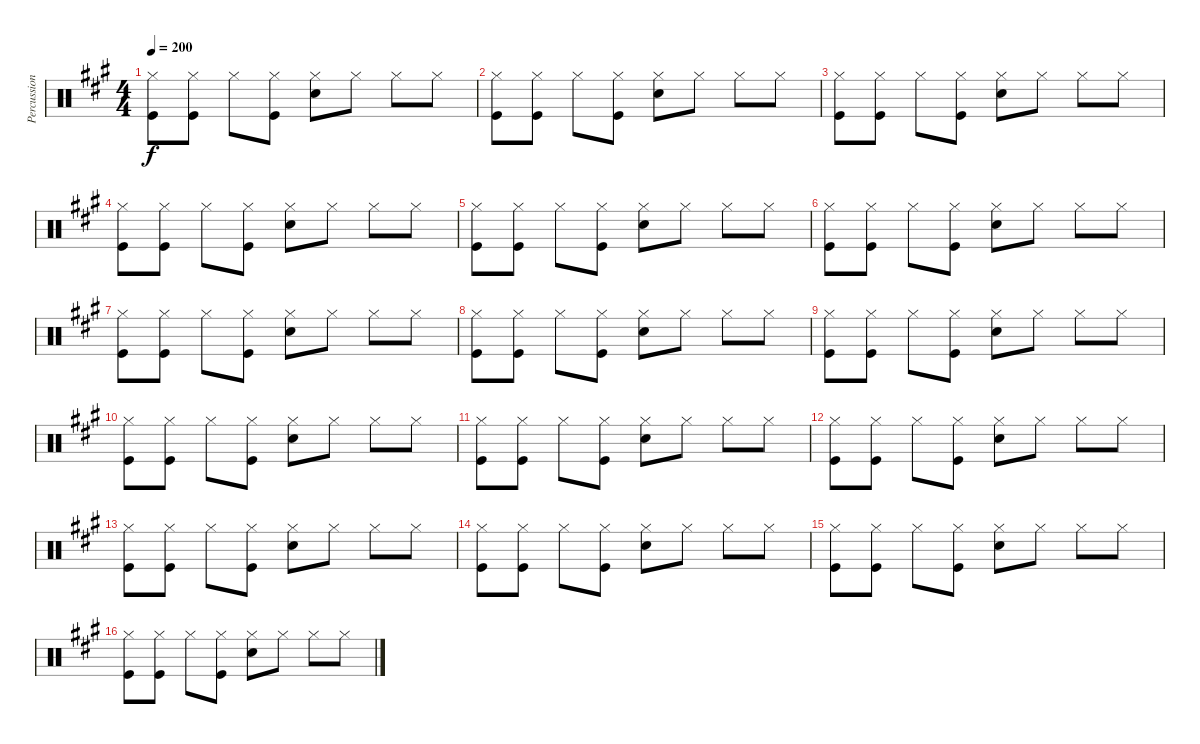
\track ("Percussion" "Percussion") {instrument percussion}
\staff {score}
\articulation defaults
\ts (4 4)
\tempo 200
\clef neutral
\ks a
("Hi-Hat (closed)" "Kick (hit)").8{dy f} ("Hi-Hat (closed)" "Kick (hit)").8 "Hi-Hat (closed)".8 ("Hi-Hat (closed)" "Kick (hit)").8 ("Hi-Hat (closed)" "Snare (hit) 2").8 "Hi-Hat (closed)".8 "Hi-Hat (closed)".8 "Hi-Hat (closed)".8 |
("Hi-Hat (closed)" "Kick (hit)").8 ("Hi-Hat (closed)" "Kick (hit)").8 "Hi-Hat (closed)".8 ("Hi-Hat (closed)" "Kick (hit)").8 ("Hi-Hat (closed)" "Snare (hit) 2").8 "Hi-Hat (closed)".8 "Hi-Hat (closed)".8 "Hi-Hat (closed)".8 |
("Hi-Hat (closed)" "Kick (hit)").8 ("Hi-Hat (closed)" "Kick (hit)").8 "Hi-Hat (closed)".8 ("Hi-Hat (closed)" "Kick (hit)").8 ("Hi-Hat (closed)" "Snare (hit) 2").8 "Hi-Hat (closed)".8 "Hi-Hat (closed)".8 "Hi-Hat (closed)".8 |
("Hi-Hat (closed)" "Kick (hit)").8 ("Hi-Hat (closed)" "Kick (hit)").8 "Hi-Hat (closed)".8 ("Hi-Hat (closed)" "Kick (hit)").8 ("Hi-Hat (closed)" "Snare (hit) 2").8 "Hi-Hat (closed)".8 "Hi-Hat (closed)".8 "Hi-Hat (closed)".8 |
("Hi-Hat (closed)" "Kick (hit)").8 ("Hi-Hat (closed)" "Kick (hit)").8 "Hi-Hat (closed)".8 ("Hi-Hat (closed)" "Kick (hit)").8 ("Hi-Hat (closed)" "Snare (hit) 2").8 "Hi-Hat (closed)".8 "Hi-Hat (closed)".8 "Hi-Hat (closed)".8 |
("Hi-Hat (closed)" "Kick (hit)").8 ("Hi-Hat (closed)" "Kick (hit)").8 "Hi-Hat (closed)".8 ("Hi-Hat (closed)" "Kick (hit)").8 ("Hi-Hat (closed)" "Snare (hit) 2").8 "Hi-Hat (closed)".8 "Hi-Hat (closed)".8 "Hi-Hat (closed)".8 |
("Hi-Hat (closed)" "Kick (hit)").8 ("Hi-Hat (closed)" "Kick (hit)").8 "Hi-Hat (closed)".8 ("Hi-Hat (closed)" "Kick (hit)").8 ("Hi-Hat (closed)" "Snare (hit) 2").8 "Hi-Hat (closed)".8 "Hi-Hat (closed)".8 "Hi-Hat (closed)".8 |
("Hi-Hat (closed)" "Kick (hit)").8 ("Hi-Hat (closed)" "Kick (hit)").8 "Hi-Hat (closed)".8 ("Hi-Hat (closed)" "Kick (hit)").8 ("Hi-Hat (closed)" "Snare (hit) 2").8 "Hi-Hat (closed)".8 "Hi-Hat (closed)".8 "Hi-Hat (closed)".8 |
("Hi-Hat (closed)" "Kick (hit)").8 ("Hi-Hat (closed)" "Kick (hit)").8 "Hi-Hat (closed)".8 ("Hi-Hat (closed)" "Kick (hit)").8 ("Hi-Hat (closed)" "Snare (hit) 2").8 "Hi-Hat (closed)".8 "Hi-Hat (closed)".8 "Hi-Hat (closed)".8 |
("Hi-Hat (closed)" "Kick (hit)").8 ("Hi-Hat (closed)" "Kick (hit)").8 "Hi-Hat (closed)".8 ("Hi-Hat (closed)" "Kick (hit)").8 ("Hi-Hat (closed)" "Snare (hit) 2").8 "Hi-Hat (closed)".8 "Hi-Hat (closed)".8 "Hi-Hat (closed)".8 |
("Hi-Hat (closed)" "Kick (hit)").8 ("Hi-Hat (closed)" "Kick (hit)").8 "Hi-Hat (closed)".8 ("Hi-Hat (closed)" "Kick (hit)").8 ("Hi-Hat (closed)" "Snare (hit) 2").8 "Hi-Hat (closed)".8 "Hi-Hat (closed)".8 "Hi-Hat (closed)".8 |
("Hi-Hat (closed)" "Kick (hit)").8 ("Hi-Hat (closed)" "Kick (hit)").8 "Hi-Hat (closed)".8 ("Hi-Hat (closed)" "Kick (hit)").8 ("Hi-Hat (closed)" "Snare (hit) 2").8 "Hi-Hat (closed)".8 "Hi-Hat (closed)".8 "Hi-Hat (closed)".8 |
("Hi-Hat (closed)" "Kick (hit)").8 ("Hi-Hat (closed)" "Kick (hit)").8 "Hi-Hat (closed)".8 ("Hi-Hat (closed)" "Kick (hit)").8 ("Hi-Hat (closed)" "Snare (hit) 2").8 "Hi-Hat (closed)".8 "Hi-Hat (closed)".8 "Hi-Hat (closed)".8 |
("Hi-Hat (closed)" "Kick (hit)").8 ("Hi-Hat (closed)" "Kick (hit)").8 "Hi-Hat (closed)".8 ("Hi-Hat (closed)" "Kick (hit)").8 ("Hi-Hat (closed)" "Snare (hit) 2").8 "Hi-Hat (closed)".8 "Hi-Hat (closed)".8 "Hi-Hat (closed)".8 |
("Hi-Hat (closed)" "Kick (hit)").8 ("Hi-Hat (closed)" "Kick (hit)").8 "Hi-Hat (closed)".8 ("Hi-Hat (closed)" "Kick (hit)").8 ("Hi-Hat (closed)" "Snare (hit) 2").8 "Hi-Hat (closed)".8 "Hi-Hat (closed)".8 "Hi-Hat (closed)".8 |
("Hi-Hat (closed)" "Kick (hit)").8 ("Hi-Hat (closed)" "Kick (hit)").8 "Hi-Hat (closed)".8 ("Hi-Hat (closed)" "Kick (hit)").8 ("Hi-Hat (closed)" "Snare (hit) 2").8 "Hi-Hat (closed)".8 "Hi-Hat (closed)".8 "Hi-Hat (closed)".8
